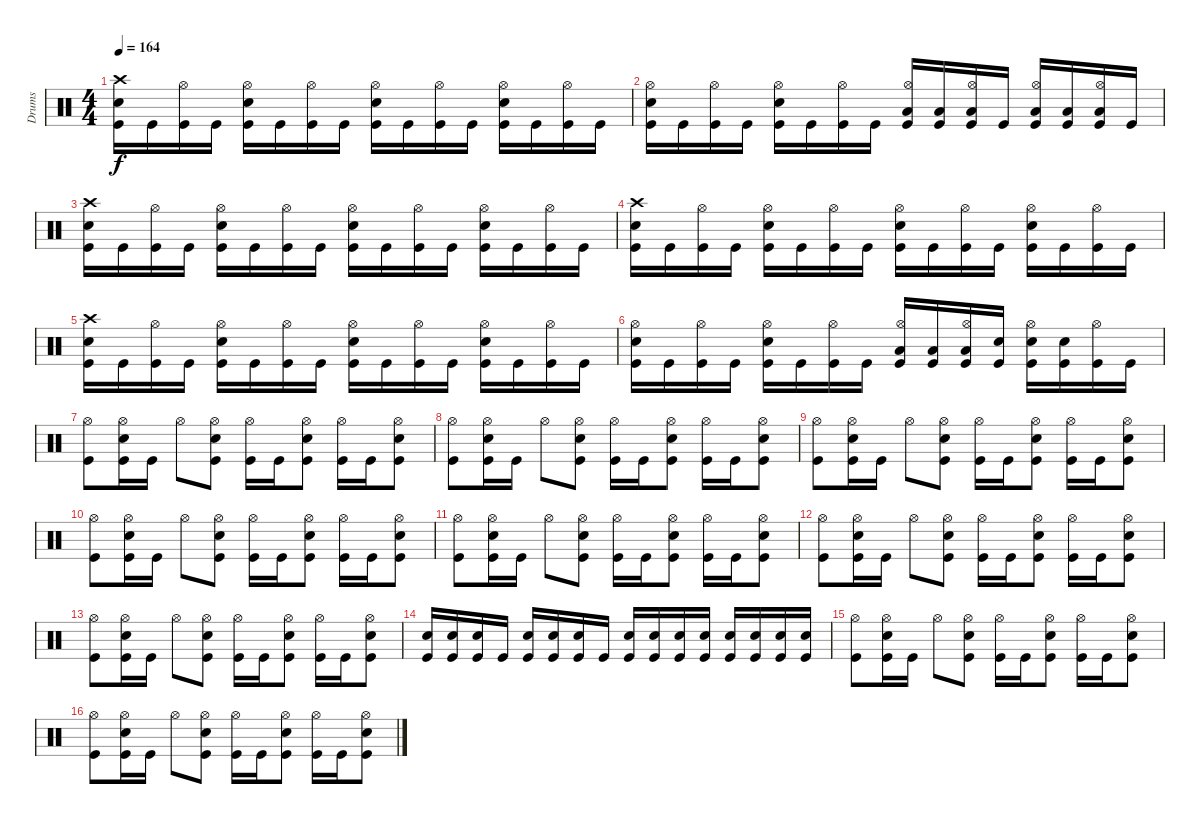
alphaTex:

\track ("Drums" "Drums") {instrument percussion}
\staff {score}
\articulation defaults
\ts (4 4)
\tempo 164
\clef neutral
\ks c
("Crash high (hit)" "Snare (hit) 2" "Kick (hit)").16{dy f} "Kick (hit)".16 ("Hi-Hat (open)" "Kick (hit)").16 "Kick (hit)".16 ("Hi-Hat (open)" "Snare (hit) 2" "Kick (hit)").16 "Kick (hit)".16 ("Hi-Hat (open)" "Kick (hit)").16 "Kick (hit)".16 ("Hi-Hat (open)" "Snare (hit) 2" "Kick (hit)").16 "Kick (hit)".16 ("Hi-Hat (open)" "Kick (hit)").16 "Kick (hit)".16 ("Hi-Hat (open)" "Snare (hit) 2" "Kick (hit)").16 "Kick (hit)".16 ("Hi-Hat (open)" "Kick (hit)").16 "Kick (hit)".16 |
("Hi-Hat (open)" "Snare (hit) 2" "Kick (hit)").16 "Kick (hit)".16 ("Hi-Hat (open)" "Kick (hit)").16 "Kick (hit)".16 ("Hi-Hat (open)" "Snare (hit) 2" "Kick (hit)").16 "Kick (hit)".16 ("Hi-Hat (open)" "Kick (hit)").16 "Kick (hit)".16 ("Hi-Hat (open)" "Low Floor Tom (hit)" "Kick (hit)").16 ("Low Floor Tom (hit)" "Kick (hit)").16 ("Hi-Hat (open)" "Low Floor Tom (hit)" "Kick (hit)").16 "Kick (hit)".16 ("Hi-Hat (open)" "Low Floor Tom (hit)" "Kick (hit)").16 ("Low Floor Tom (hit)" "Kick (hit)").16 ("Hi-Hat (open)" "Low Floor Tom (hit)" "Kick (hit)").16 "Kick (hit)".16 |
("Crash high (hit)" "Snare (hit) 2" "Kick (hit)").16 "Kick (hit)".16 ("Hi-Hat (open)" "Kick (hit)").16 "Kick (hit)".16 ("Hi-Hat (open)" "Snare (hit) 2" "Kick (hit)").16 "Kick (hit)".16 ("Hi-Hat (open)" "Kick (hit)").16 "Kick (hit)".16 ("Hi-Hat (open)" "Snare (hit) 2" "Kick (hit)").16 "Kick (hit)".16 ("Hi-Hat (open)" "Kick (hit)").16 "Kick (hit)".16 ("Hi-Hat (open)" "Snare (hit) 2" "Kick (hit)").16 "Kick (hit)".16 ("Hi-Hat (open)" "Kick (hit)").16 "Kick (hit)".16 |
("Crash high (hit)" "Snare (hit) 2" "Kick (hit)").16 "Kick (hit)".16 ("Hi-Hat (open)" "Kick (hit)").16 "Kick (hit)".16 ("Hi-Hat (open)" "Snare (hit) 2" "Kick (hit)").16 "Kick (hit)".16 ("Hi-Hat (open)" "Kick (hit)").16 "Kick (hit)".16 ("Hi-Hat (open)" "Snare (hit) 2" "Kick (hit)").16 "Kick (hit)".16 ("Hi-Hat (open)" "Kick (hit)").16 "Kick (hit)".16 ("Hi-Hat (open)" "Snare (hit) 2" "Kick (hit)").16 "Kick (hit)".16 ("Hi-Hat (open)" "Kick (hit)").16 "Kick (hit)".16 |
("Crash high (hit)" "Snare (hit) 2" "Kick (hit)").16 "Kick (hit)".16 ("Hi-Hat (open)" "Kick (hit)").16 "Kick (hit)".16 ("Hi-Hat (open)" "Snare (hit) 2" "Kick (hit)").16 "Kick (hit)".16 ("Hi-Hat (open)" "Kick (hit)").16 "Kick (hit)".16 ("Hi-Hat (open)" "Snare (hit) 2" "Kick (hit)").16 "Kick (hit)".16 ("Hi-Hat (open)" "Kick (hit)").16 "Kick (hit)".16 ("Hi-Hat (open)" "Snare (hit) 2" "Kick (hit)").16 "Kick (hit)".16 ("Hi-Hat (open)" "Kick (hit)").16 "Kick (hit)".16 |
("Hi-Hat (open)" "Snare (hit) 2" "Kick (hit)").16 "Kick (hit)".16 ("Hi-Hat (open)" "Kick (hit)").16 "Kick (hit)".16 ("Hi-Hat (open)" "Snare (hit) 2" "Kick (hit)").16 "Kick (hit)".16 ("Hi-Hat (open)" "Kick (hit)").16 "Kick (hit)".16 ("Hi-Hat (open)" "Low Floor Tom (hit)" "Kick (hit)").16 ("Low Floor Tom (hit)" "Kick (hit)").16 ("Hi-Hat (open)" "Low Floor Tom (hit)" "Kick (hit)").16 ("Snare (hit) 2" "Kick (hit)").16 ("Hi-Hat (open)" "Snare (hit) 2" "Kick (hit)").16 ("Snare (hit) 2" "Kick (hit)").16 ("Hi-Hat (open)" "Kick (hit)").16 "Kick (hit)".16 |
("Hi-Hat (open)" "Kick (hit)").8 ("Hi-Hat (open)" "Snare (hit) 2" "Kick (hit)").16 "Kick (hit)".16 "Hi-Hat (open)".8 ("Hi-Hat (open)" "Snare (hit) 2" "Kick (hit)").8 ("Hi-Hat (open)" "Kick (hit)").16 "Kick (hit)".16 ("Hi-Hat (open)" "Snare (hit) 2" "Kick (hit)").8 ("Hi-Hat (open)" "Kick (hit)").16 "Kick (hit)".16 ("Hi-Hat (open)" "Snare (hit) 2" "Kick (hit)").8 |
("Hi-Hat (open)" "Kick (hit)").8 ("Hi-Hat (open)" "Snare (hit) 2" "Kick (hit)").16 "Kick (hit)".16 "Hi-Hat (open)".8 ("Hi-Hat (open)" "Snare (hit) 2" "Kick (hit)").8 ("Hi-Hat (open)" "Kick (hit)").16 "Kick (hit)".16 ("Hi-Hat (open)" "Snare (hit) 2" "Kick (hit)").8 ("Hi-Hat (open)" "Kick (hit)").16 "Kick (hit)".16 ("Hi-Hat (open)" "Snare (hit) 2" "Kick (hit)").8 |
("Hi-Hat (open)" "Kick (hit)").8 ("Hi-Hat (open)" "Snare (hit) 2" "Kick (hit)").16 "Kick (hit)".16 "Hi-Hat (open)".8 ("Hi-Hat (open)" "Snare (hit) 2" "Kick (hit)").8 ("Hi-Hat (open)" "Kick (hit)").16 "Kick (hit)".16 ("Hi-Hat (open)" "Snare (hit) 2" "Kick (hit)").8 ("Hi-Hat (open)" "Kick (hit)").16 "Kick (hit)".16 ("Hi-Hat (open)" "Snare (hit) 2" "Kick (hit)").8 |
("Hi-Hat (open)" "Kick (hit)").8 ("Hi-Hat (open)" "Snare (hit) 2" "Kick (hit)").16 "Kick (hit)".16 "Hi-Hat (open)".8 ("Hi-Hat (open)" "Snare (hit) 2" "Kick (hit)").8 ("Hi-Hat (open)" "Kick (hit)").16 "Kick (hit)".16 ("Hi-Hat (open)" "Snare (hit) 2" "Kick (hit)").8 ("Hi-Hat (open)" "Kick (hit)").16 "Kick (hit)".16 ("Hi-Hat (open)" "Snare (hit) 2" "Kick (hit)").8 |
("Hi-Hat (open)" "Kick (hit)").8 ("Hi-Hat (open)" "Snare (hit) 2" "Kick (hit)").16 "Kick (hit)".16 "Hi-Hat (open)".8 ("Hi-Hat (open)" "Snare (hit) 2" "Kick (hit)").8 ("Hi-Hat (open)" "Kick (hit)").16 "Kick (hit)".16 ("Hi-Hat (open)" "Snare (hit) 2" "Kick (hit)").8 ("Hi-Hat (open)" "Kick (hit)").16 "Kick (hit)".16 ("Hi-Hat (open)" "Snare (hit) 2" "Kick (hit)").8 |
("Hi-Hat (open)" "Kick (hit)").8 ("Hi-Hat (open)" "Snare (hit) 2" "Kick (hit)").16 "Kick (hit)".16 "Hi-Hat (open)".8 ("Hi-Hat (open)" "Snare (hit) 2" "Kick (hit)").8 ("Hi-Hat (open)" "Kick (hit)").16 "Kick (hit)".16 ("Hi-Hat (open)" "Snare (hit) 2" "Kick (hit)").8 ("Hi-Hat (open)" "Kick (hit)").16 "Kick (hit)".16 ("Hi-Hat (open)" "Snare (hit) 2" "Kick (hit)").8 |
("Hi-Hat (open)" "Kick (hit)").8 ("Hi-Hat (open)" "Snare (hit) 2" "Kick (hit)").16 "Kick (hit)".16 "Hi-Hat (open)".8 ("Hi-Hat (open)" "Snare (hit) 2" "Kick (hit)").8 ("Hi-Hat (open)" "Kick (hit)").16 "Kick (hit)".16 ("Hi-Hat (open)" "Snare (hit) 2" "Kick (hit)").8 ("Hi-Hat (open)" "Kick (hit)").16 "Kick (hit)".16 ("Hi-Hat (open)" "Snare (hit) 2" "Kick (hit)").8 |
("Snare (hit) 2" "Kick (hit)").16 ("Snare (hit) 2" "Kick (hit)").16 ("Snare (hit) 2" "Kick (hit)").16 "Kick (hit)".16 ("Snare (hit) 2" "Kick (hit)").16 ("Snare (hit) 2" "Kick (hit)").16 ("Snare (hit) 2" "Kick (hit)").16 "Kick (hit)".16 ("Snare (hit) 2" "Kick (hit)").16 ("Snare (hit) 2" "Kick (hit)").16 ("Snare (hit) 2" "Kick (hit)").16 ("Snare (hit) 2" "Kick (hit)").16 ("Snare (hit) 2" "Kick (hit)").16 ("Snare (hit) 2" "Kick (hit)").16 ("Snare (hit) 2" "Kick (hit)").16 ("Snare (hit) 2" "Kick (hit)").16 |
("Hi-Hat (open)" "Kick (hit)").8 ("Hi-Hat (open)" "Snare (hit) 2" "Kick (hit)").16 "Kick (hit)".16 "Hi-Hat (open)".8 ("Hi-Hat (open)" "Snare (hit) 2" "Kick (hit)").8 ("Hi-Hat (open)" "Kick (hit)").16 "Kick (hit)".16 ("Hi-Hat (open)" "Snare (hit) 2" "Kick (hit)").8 ("Hi-Hat (open)" "Kick (hit)").16 "Kick (hit)".16 ("Hi-Hat (open)" "Snare (hit) 2" "Kick (hit)").8 |
("Hi-Hat (open)" "Kick (hit)").8 ("Hi-Hat (open)" "Snare (hit) 2" "Kick (hit)").16 "Kick (hit)".16 "Hi-Hat (open)".8 ("Hi-Hat (open)" "Snare (hit) 2" "Kick (hit)").8 ("Hi-Hat (open)" "Kick (hit)").16 "Kick (hit)".16 ("Hi-Hat (open)" "Snare (hit) 2" "Kick (hit)").8 ("Hi-Hat (open)" "Kick (hit)").16 "Kick (hit)".16 ("Hi-Hat (open)" "Snare (hit) 2" "Kick (hit)").8
